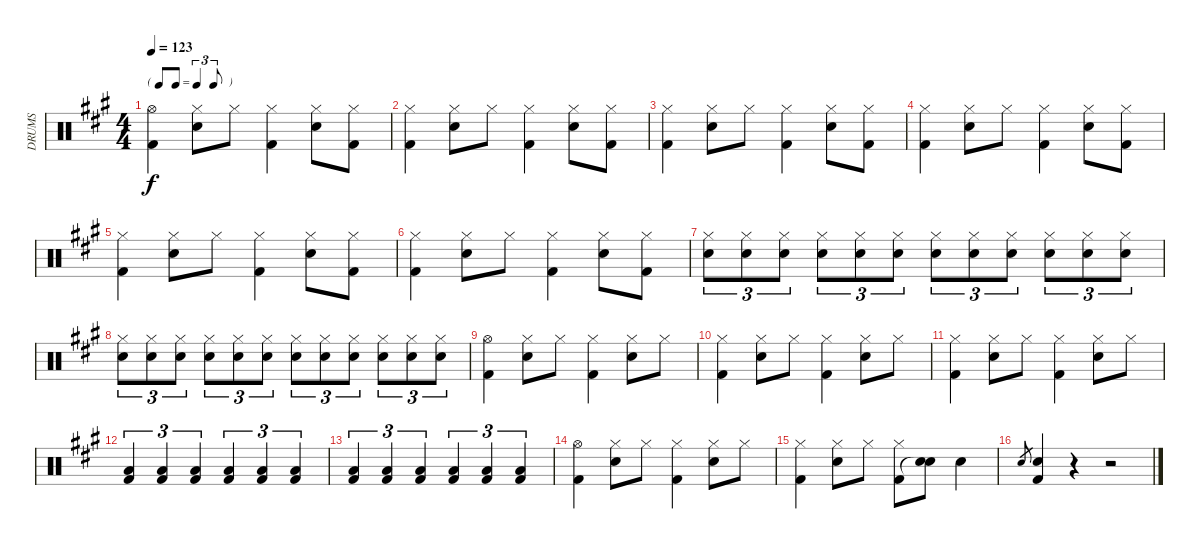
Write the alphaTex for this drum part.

\track ("DRUMS" "DRUMS") {solo instrument percussion}
\staff {score}
\articulation defaults
\ts (4 4)
\tf triplet8th
\tempo 123
\clef neutral
\ks a
("Hi-Hat (open)" "Kick (hit) 2").4{dy f} ("Hi-Hat (closed)" "Snare (hit) 2").8 "Hi-Hat (closed)".8 ("Hi-Hat (closed)" "Kick (hit) 2").4 ("Hi-Hat (closed)" "Snare (hit) 2").8 ("Hi-Hat (closed)" "Kick (hit) 2").8 |
("Hi-Hat (closed)" "Kick (hit) 2").4 ("Hi-Hat (closed)" "Snare (hit) 2").8 "Hi-Hat (closed)".8 ("Hi-Hat (closed)" "Kick (hit) 2").4 ("Hi-Hat (closed)" "Snare (hit) 2").8 ("Hi-Hat (closed)" "Kick (hit) 2").8 |
("Hi-Hat (closed)" "Kick (hit) 2").4 ("Hi-Hat (closed)" "Snare (hit) 2").8 "Hi-Hat (closed)".8 ("Hi-Hat (closed)" "Kick (hit) 2").4 ("Hi-Hat (closed)" "Snare (hit) 2").8 ("Hi-Hat (closed)" "Kick (hit) 2").8 |
("Hi-Hat (closed)" "Kick (hit) 2").4 ("Hi-Hat (closed)" "Snare (hit) 2").8 "Hi-Hat (closed)".8 ("Hi-Hat (closed)" "Kick (hit) 2").4 ("Hi-Hat (closed)" "Snare (hit) 2").8 ("Hi-Hat (closed)" "Kick (hit) 2").8 |
("Hi-Hat (closed)" "Kick (hit) 2").4 ("Hi-Hat (closed)" "Snare (hit) 2").8 "Hi-Hat (closed)".8 ("Hi-Hat (closed)" "Kick (hit) 2").4 ("Hi-Hat (closed)" "Snare (hit) 2").8 ("Hi-Hat (closed)" "Kick (hit) 2").8 |
("Hi-Hat (closed)" "Kick (hit) 2").4 ("Hi-Hat (closed)" "Snare (hit) 2").8 "Hi-Hat (closed)".8 ("Hi-Hat (closed)" "Kick (hit) 2").4 ("Hi-Hat (closed)" "Snare (hit) 2").8 ("Hi-Hat (closed)" "Kick (hit) 2").8 |
("Hi-Hat (closed)" "Snare (hit) 2").8{tu (3 2)} ("Hi-Hat (closed)" "Snare (hit) 2").8{tu (3 2)} ("Hi-Hat (closed)" "Snare (hit) 2").8{tu (3 2)} ("Hi-Hat (closed)" "Snare (hit) 2").8{tu (3 2)} ("Hi-Hat (closed)" "Snare (hit) 2").8{tu (3 2)} ("Hi-Hat (closed)" "Snare (hit) 2").8{tu (3 2)} ("Hi-Hat (closed)" "Snare (hit) 2").8{tu (3 2)} ("Hi-Hat (closed)" "Snare (hit) 2").8{tu (3 2)} ("Hi-Hat (closed)" "Snare (hit) 2").8{tu (3 2)} ("Hi-Hat (closed)" "Snare (hit) 2").8{tu (3 2)} ("Hi-Hat (closed)" "Snare (hit) 2").8{tu (3 2)} ("Hi-Hat (closed)" "Snare (hit) 2").8{tu (3 2)} |
("Hi-Hat (closed)" "Snare (hit) 2").8{tu (3 2)} ("Hi-Hat (closed)" "Snare (hit) 2").8{tu (3 2)} ("Hi-Hat (closed)" "Snare (hit) 2").8{tu (3 2)} ("Hi-Hat (closed)" "Snare (hit) 2").8{tu (3 2)} ("Hi-Hat (closed)" "Snare (hit) 2").8{tu (3 2)} ("Hi-Hat (closed)" "Snare (hit) 2").8{tu (3 2)} ("Hi-Hat (closed)" "Snare (hit) 2").8{tu (3 2)} ("Hi-Hat (closed)" "Snare (hit) 2").8{tu (3 2)} ("Hi-Hat (closed)" "Snare (hit) 2").8{tu (3 2)} ("Hi-Hat (closed)" "Snare (hit) 2").8{tu (3 2)} ("Hi-Hat (closed)" "Snare (hit) 2").8{tu (3 2)} ("Hi-Hat (closed)" "Snare (hit) 2").8{tu (3 2)} |
("Hi-Hat (open)" "Kick (hit) 2").4 ("Hi-Hat (closed)" "Snare (hit) 2").8 "Hi-Hat (closed)".8 ("Hi-Hat (closed)" "Kick (hit) 2").4 ("Hi-Hat (closed)" "Snare (hit) 2").8 "Hi-Hat (closed)".8 |
("Hi-Hat (closed)" "Kick (hit) 2").4 ("Hi-Hat (closed)" "Snare (hit) 2").8 "Hi-Hat (closed)".8 ("Hi-Hat (closed)" "Kick (hit) 2").4 ("Hi-Hat (closed)" "Snare (hit) 2").8 "Hi-Hat (closed)".8 |
("Hi-Hat (closed)" "Kick (hit) 2").4 ("Hi-Hat (closed)" "Snare (hit) 2").8 "Hi-Hat (closed)".8 ("Hi-Hat (closed)" "Kick (hit) 2").4 ("Hi-Hat (closed)" "Snare (hit) 2").8 "Hi-Hat (closed)".8 |
("Low Tom (hit)" "Kick (hit) 2").4{tu (3 2)} ("Low Tom (hit)" "Kick (hit) 2").4{tu (3 2)} ("Low Tom (hit)" "Kick (hit) 2").4{tu (3 2)} ("Low Tom (hit)" "Kick (hit) 2").4{tu (3 2)} ("Low Tom (hit)" "Kick (hit) 2").4{tu (3 2)} ("Low Tom (hit)" "Kick (hit) 2").4{tu (3 2)} |
("Low Tom (hit)" "Kick (hit) 2").4{tu (3 2)} ("Low Tom (hit)" "Kick (hit) 2").4{tu (3 2)} ("Low Tom (hit)" "Kick (hit) 2").4{tu (3 2)} ("Low Tom (hit)" "Kick (hit) 2").4{tu (3 2)} ("Low Tom (hit)" "Kick (hit) 2").4{tu (3 2)} ("Low Tom (hit)" "Kick (hit) 2").4{tu (3 2)} |
("Hi-Hat (open)" "Kick (hit) 2").4 ("Hi-Hat (closed)" "Snare (hit) 2").8 "Hi-Hat (closed)".8 ("Hi-Hat (closed)" "Kick (hit) 2").4 ("Hi-Hat (closed)" "Snare (hit) 2").8 "Hi-Hat (closed)".8 |
("Hi-Hat (closed)" "Kick (hit) 2").4 ("Hi-Hat (closed)" "Snare (hit) 2").8 "Hi-Hat (closed)".8 ("Hi-Hat (closed)" "Kick (hit) 2").8 ("Snare (hit) 2" "Snare (hit)"{t}).8 "Snare (hit) 2".4 |
"Snare (hit) 2".8{gr} ("Snare (hit) 2" "Kick (hit) 2").4 r.4 r.2
